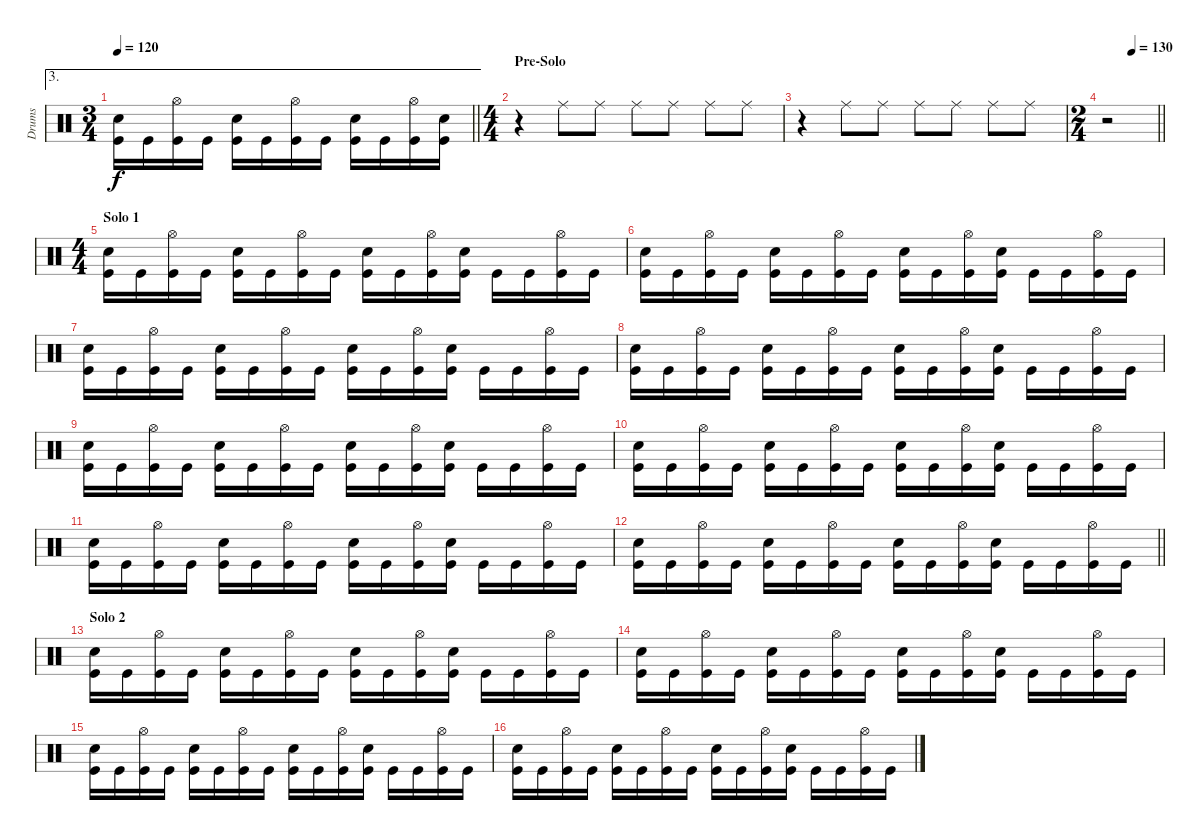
\track ("Drums" "Drums") {instrument percussion}
\staff {score}
\articulation defaults
\ae 3
\ts (3 4)
\tempo 120
\clef neutral
\barLineRight lightlight
\ks c
("Snare (hit) 2" "Kick (hit)").16{dy f} "Kick (hit)".16 ("Hi-Hat (open)" "Kick (hit)").16 "Kick (hit)".16 ("Snare (hit) 2" "Kick (hit)").16 "Kick (hit)".16 ("Hi-Hat (open)" "Kick (hit)").16 "Kick (hit)".16 ("Snare (hit) 2" "Kick (hit)").16 "Kick (hit)".16 ("Hi-Hat (open)" "Kick (hit)").16 ("Snare (hit) 2" "Kick (hit)").16 |
\ts (4 4)
\section ("" "Pre-Solo")
r.4 "Ride (middle)".8 "Ride (middle)".8 "Ride (middle)".8 "Ride (middle)".8 "Ride (middle)".8 "Ride (middle)".8 |
r.4 "Ride (middle)".8 "Ride (middle)".8 "Ride (middle)".8 "Ride (middle)".8 "Ride (middle)".8 "Ride (middle)".8 |
\ts (2 4)
\tempo (130 0.5)
\barLineRight lightlight
r.2 |
\ts (4 4)
\section ("" "Solo 1")
("Snare (hit) 2" "Kick (hit)").16 "Kick (hit)".16 ("Hi-Hat (open)" "Kick (hit)").16 "Kick (hit)".16 ("Snare (hit) 2" "Kick (hit)").16 "Kick (hit)".16 ("Hi-Hat (open)" "Kick (hit)").16 "Kick (hit)".16 ("Snare (hit) 2" "Kick (hit)").16 "Kick (hit)".16 ("Hi-Hat (open)" "Kick (hit)").16 ("Snare (hit) 2" "Kick (hit)").16 "Kick (hit)".16 "Kick (hit)".16 ("Hi-Hat (open)" "Kick (hit)").16 "Kick (hit)".16 |
("Snare (hit) 2" "Kick (hit)").16 "Kick (hit)".16 ("Hi-Hat (open)" "Kick (hit)").16 "Kick (hit)".16 ("Snare (hit) 2" "Kick (hit)").16 "Kick (hit)".16 ("Hi-Hat (open)" "Kick (hit)").16 "Kick (hit)".16 ("Snare (hit) 2" "Kick (hit)").16 "Kick (hit)".16 ("Hi-Hat (open)" "Kick (hit)").16 ("Snare (hit) 2" "Kick (hit)").16 "Kick (hit)".16 "Kick (hit)".16 ("Hi-Hat (open)" "Kick (hit)").16 "Kick (hit)".16 |
("Snare (hit) 2" "Kick (hit)").16 "Kick (hit)".16 ("Hi-Hat (open)" "Kick (hit)").16 "Kick (hit)".16 ("Snare (hit) 2" "Kick (hit)").16 "Kick (hit)".16 ("Hi-Hat (open)" "Kick (hit)").16 "Kick (hit)".16 ("Snare (hit) 2" "Kick (hit)").16 "Kick (hit)".16 ("Hi-Hat (open)" "Kick (hit)").16 ("Snare (hit) 2" "Kick (hit)").16 "Kick (hit)".16 "Kick (hit)".16 ("Hi-Hat (open)" "Kick (hit)").16 "Kick (hit)".16 |
("Snare (hit) 2" "Kick (hit)").16 "Kick (hit)".16 ("Hi-Hat (open)" "Kick (hit)").16 "Kick (hit)".16 ("Snare (hit) 2" "Kick (hit)").16 "Kick (hit)".16 ("Hi-Hat (open)" "Kick (hit)").16 "Kick (hit)".16 ("Snare (hit) 2" "Kick (hit)").16 "Kick (hit)".16 ("Hi-Hat (open)" "Kick (hit)").16 ("Snare (hit) 2" "Kick (hit)").16 "Kick (hit)".16 "Kick (hit)".16 ("Hi-Hat (open)" "Kick (hit)").16 "Kick (hit)".16 |
("Snare (hit) 2" "Kick (hit)").16 "Kick (hit)".16 ("Hi-Hat (open)" "Kick (hit)").16 "Kick (hit)".16 ("Snare (hit) 2" "Kick (hit)").16 "Kick (hit)".16 ("Hi-Hat (open)" "Kick (hit)").16 "Kick (hit)".16 ("Snare (hit) 2" "Kick (hit)").16 "Kick (hit)".16 ("Hi-Hat (open)" "Kick (hit)").16 ("Snare (hit) 2" "Kick (hit)").16 "Kick (hit)".16 "Kick (hit)".16 ("Hi-Hat (open)" "Kick (hit)").16 "Kick (hit)".16 |
("Snare (hit) 2" "Kick (hit)").16 "Kick (hit)".16 ("Hi-Hat (open)" "Kick (hit)").16 "Kick (hit)".16 ("Snare (hit) 2" "Kick (hit)").16 "Kick (hit)".16 ("Hi-Hat (open)" "Kick (hit)").16 "Kick (hit)".16 ("Snare (hit) 2" "Kick (hit)").16 "Kick (hit)".16 ("Hi-Hat (open)" "Kick (hit)").16 ("Snare (hit) 2" "Kick (hit)").16 "Kick (hit)".16 "Kick (hit)".16 ("Hi-Hat (open)" "Kick (hit)").16 "Kick (hit)".16 |
("Snare (hit) 2" "Kick (hit)").16 "Kick (hit)".16 ("Hi-Hat (open)" "Kick (hit)").16 "Kick (hit)".16 ("Snare (hit) 2" "Kick (hit)").16 "Kick (hit)".16 ("Hi-Hat (open)" "Kick (hit)").16 "Kick (hit)".16 ("Snare (hit) 2" "Kick (hit)").16 "Kick (hit)".16 ("Hi-Hat (open)" "Kick (hit)").16 ("Snare (hit) 2" "Kick (hit)").16 "Kick (hit)".16 "Kick (hit)".16 ("Hi-Hat (open)" "Kick (hit)").16 "Kick (hit)".16 |
\barLineRight lightlight
("Snare (hit) 2" "Kick (hit)").16 "Kick (hit)".16 ("Hi-Hat (open)" "Kick (hit)").16 "Kick (hit)".16 ("Snare (hit) 2" "Kick (hit)").16 "Kick (hit)".16 ("Hi-Hat (open)" "Kick (hit)").16 "Kick (hit)".16 ("Snare (hit) 2" "Kick (hit)").16 "Kick (hit)".16 ("Hi-Hat (open)" "Kick (hit)").16 ("Snare (hit) 2" "Kick (hit)").16 "Kick (hit)".16 "Kick (hit)".16 ("Hi-Hat (open)" "Kick (hit)").16 "Kick (hit)".16 |
\section ("" "Solo 2")
("Snare (hit) 2" "Kick (hit)").16 "Kick (hit)".16 ("Hi-Hat (open)" "Kick (hit)").16 "Kick (hit)".16 ("Snare (hit) 2" "Kick (hit)").16 "Kick (hit)".16 ("Hi-Hat (open)" "Kick (hit)").16 "Kick (hit)".16 ("Snare (hit) 2" "Kick (hit)").16 "Kick (hit)".16 ("Hi-Hat (open)" "Kick (hit)").16 ("Snare (hit) 2" "Kick (hit)").16 "Kick (hit)".16 "Kick (hit)".16 ("Hi-Hat (open)" "Kick (hit)").16 "Kick (hit)".16 |
("Snare (hit) 2" "Kick (hit)").16 "Kick (hit)".16 ("Hi-Hat (open)" "Kick (hit)").16 "Kick (hit)".16 ("Snare (hit) 2" "Kick (hit)").16 "Kick (hit)".16 ("Hi-Hat (open)" "Kick (hit)").16 "Kick (hit)".16 ("Snare (hit) 2" "Kick (hit)").16 "Kick (hit)".16 ("Hi-Hat (open)" "Kick (hit)").16 ("Snare (hit) 2" "Kick (hit)").16 "Kick (hit)".16 "Kick (hit)".16 ("Hi-Hat (open)" "Kick (hit)").16 "Kick (hit)".16 |
("Snare (hit) 2" "Kick (hit)").16 "Kick (hit)".16 ("Hi-Hat (open)" "Kick (hit)").16 "Kick (hit)".16 ("Snare (hit) 2" "Kick (hit)").16 "Kick (hit)".16 ("Hi-Hat (open)" "Kick (hit)").16 "Kick (hit)".16 ("Snare (hit) 2" "Kick (hit)").16 "Kick (hit)".16 ("Hi-Hat (open)" "Kick (hit)").16 ("Snare (hit) 2" "Kick (hit)").16 "Kick (hit)".16 "Kick (hit)".16 ("Hi-Hat (open)" "Kick (hit)").16 "Kick (hit)".16 |
("Snare (hit) 2" "Kick (hit)").16 "Kick (hit)".16 ("Hi-Hat (open)" "Kick (hit)").16 "Kick (hit)".16 ("Snare (hit) 2" "Kick (hit)").16 "Kick (hit)".16 ("Hi-Hat (open)" "Kick (hit)").16 "Kick (hit)".16 ("Snare (hit) 2" "Kick (hit)").16 "Kick (hit)".16 ("Hi-Hat (open)" "Kick (hit)").16 ("Snare (hit) 2" "Kick (hit)").16 "Kick (hit)".16 "Kick (hit)".16 ("Hi-Hat (open)" "Kick (hit)").16 "Kick (hit)".16
